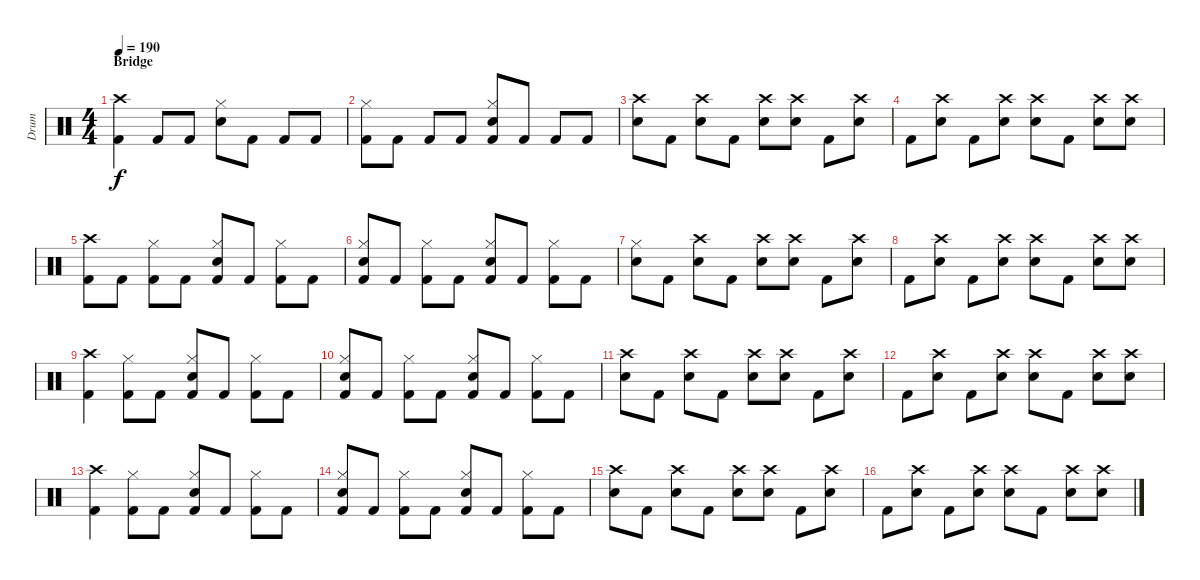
\track ("Drum" "Drum") {instrument percussion}
\staff {score}
\articulation defaults
\ts (4 4)
\section ("" "Bridge")
\tempo 190
\clef neutral
\ks c
("Crash high (hit)" "Kick (hit) 2").4{dy f} "Kick (hit) 2".8 "Kick (hit) 2".8 ("Hi-Hat (closed)" "Electric Snare (hit)").8 "Kick (hit) 2".8 "Kick (hit) 2".8 "Kick (hit) 2".8 |
("Hi-Hat (closed)" "Kick (hit) 2").8 "Kick (hit) 2".8 "Kick (hit) 2".8 "Kick (hit) 2".8 ("Hi-Hat (closed)" "Electric Snare (hit)" "Kick (hit) 2").8 "Kick (hit) 2".8 "Kick (hit) 2".8 "Kick (hit) 2".8 |
("Crash high (hit)" "Electric Snare (hit)").8 "Kick (hit) 2".8 ("Crash high (hit)" "Electric Snare (hit)").8 "Kick (hit) 2".8 ("Crash high (hit)" "Electric Snare (hit)").8 ("Crash high (hit)" "Electric Snare (hit)").8 "Kick (hit) 2".8 ("Crash high (hit)" "Electric Snare (hit)").8 |
"Kick (hit) 2".8 ("Crash high (hit)" "Electric Snare (hit)").8 "Kick (hit) 2".8 ("Crash high (hit)" "Electric Snare (hit)").8 ("Crash high (hit)" "Electric Snare (hit)").8 "Kick (hit) 2".8 ("Crash high (hit)" "Electric Snare (hit)").8 ("Crash high (hit)" "Electric Snare (hit)").8 |
("Crash high (hit)" "Kick (hit) 2").8 "Kick (hit) 2".8 ("Hi-Hat (closed)" "Kick (hit) 2").8 "Kick (hit) 2".8 ("Hi-Hat (closed)" "Electric Snare (hit)" "Kick (hit) 2").8 "Kick (hit) 2".8 ("Hi-Hat (closed)" "Kick (hit) 2").8 "Kick (hit) 2".8 |
("Hi-Hat (closed)" "Electric Snare (hit)" "Kick (hit) 2").8 "Kick (hit) 2".8 ("Hi-Hat (closed)" "Kick (hit) 2").8 "Kick (hit) 2".8 ("Hi-Hat (closed)" "Electric Snare (hit)" "Kick (hit) 2").8 "Kick (hit) 2".8 ("Hi-Hat (closed)" "Kick (hit) 2").8 "Kick (hit) 2".8 |
("Hi-Hat (closed)" "Electric Snare (hit)").8 "Kick (hit) 2".8 ("Crash high (hit)" "Electric Snare (hit)").8 "Kick (hit) 2".8 ("Crash high (hit)" "Electric Snare (hit)").8 ("Crash high (hit)" "Electric Snare (hit)").8 "Kick (hit) 2".8 ("Crash high (hit)" "Electric Snare (hit)").8 |
"Kick (hit) 2".8 ("Crash high (hit)" "Electric Snare (hit)").8 "Kick (hit) 2".8 ("Crash high (hit)" "Electric Snare (hit)").8 ("Crash high (hit)" "Electric Snare (hit)").8 "Kick (hit) 2".8 ("Crash high (hit)" "Electric Snare (hit)").8 ("Crash high (hit)" "Electric Snare (hit)").8 |
("Crash high (hit)" "Kick (hit) 2").4 ("Hi-Hat (closed)" "Kick (hit) 2").8 "Kick (hit) 2".8 ("Hi-Hat (closed)" "Electric Snare (hit)" "Kick (hit) 2").8 "Kick (hit) 2".8 ("Hi-Hat (closed)" "Kick (hit) 2").8 "Kick (hit) 2".8 |
("Hi-Hat (closed)" "Electric Snare (hit)" "Kick (hit) 2").8 "Kick (hit) 2".8 ("Hi-Hat (closed)" "Kick (hit) 2").8 "Kick (hit) 2".8 ("Hi-Hat (closed)" "Electric Snare (hit)" "Kick (hit) 2").8 "Kick (hit) 2".8 ("Hi-Hat (closed)" "Kick (hit) 2").8 "Kick (hit) 2".8 |
("Crash high (hit)" "Electric Snare (hit)").8 "Kick (hit) 2".8 ("Crash high (hit)" "Electric Snare (hit)").8 "Kick (hit) 2".8 ("Crash high (hit)" "Electric Snare (hit)").8 ("Crash high (hit)" "Electric Snare (hit)").8 "Kick (hit) 2".8 ("Crash high (hit)" "Electric Snare (hit)").8 |
"Kick (hit) 2".8 ("Crash high (hit)" "Electric Snare (hit)").8 "Kick (hit) 2".8 ("Crash high (hit)" "Electric Snare (hit)").8 ("Crash high (hit)" "Electric Snare (hit)").8 "Kick (hit) 2".8 ("Crash high (hit)" "Electric Snare (hit)").8 ("Crash high (hit)" "Electric Snare (hit)").8 |
("Crash high (hit)" "Kick (hit) 2").4 ("Hi-Hat (closed)" "Kick (hit) 2").8 "Kick (hit) 2".8 ("Hi-Hat (closed)" "Electric Snare (hit)" "Kick (hit) 2").8 "Kick (hit) 2".8 ("Hi-Hat (closed)" "Kick (hit) 2").8 "Kick (hit) 2".8 |
("Hi-Hat (closed)" "Electric Snare (hit)" "Kick (hit) 2").8 "Kick (hit) 2".8 ("Hi-Hat (closed)" "Kick (hit) 2").8 "Kick (hit) 2".8 ("Hi-Hat (closed)" "Electric Snare (hit)" "Kick (hit) 2").8 "Kick (hit) 2".8 ("Hi-Hat (closed)" "Kick (hit) 2").8 "Kick (hit) 2".8 |
("Crash high (hit)" "Electric Snare (hit)").8 "Kick (hit) 2".8 ("Crash high (hit)" "Electric Snare (hit)").8 "Kick (hit) 2".8 ("Crash high (hit)" "Electric Snare (hit)").8 ("Crash high (hit)" "Electric Snare (hit)").8 "Kick (hit) 2".8 ("Crash high (hit)" "Electric Snare (hit)").8 |
"Kick (hit) 2".8 ("Crash high (hit)" "Electric Snare (hit)").8 "Kick (hit) 2".8 ("Crash high (hit)" "Electric Snare (hit)").8 ("Crash high (hit)" "Electric Snare (hit)").8 "Kick (hit) 2".8 ("Crash high (hit)" "Electric Snare (hit)").8 ("Crash high (hit)" "Electric Snare (hit)").8
